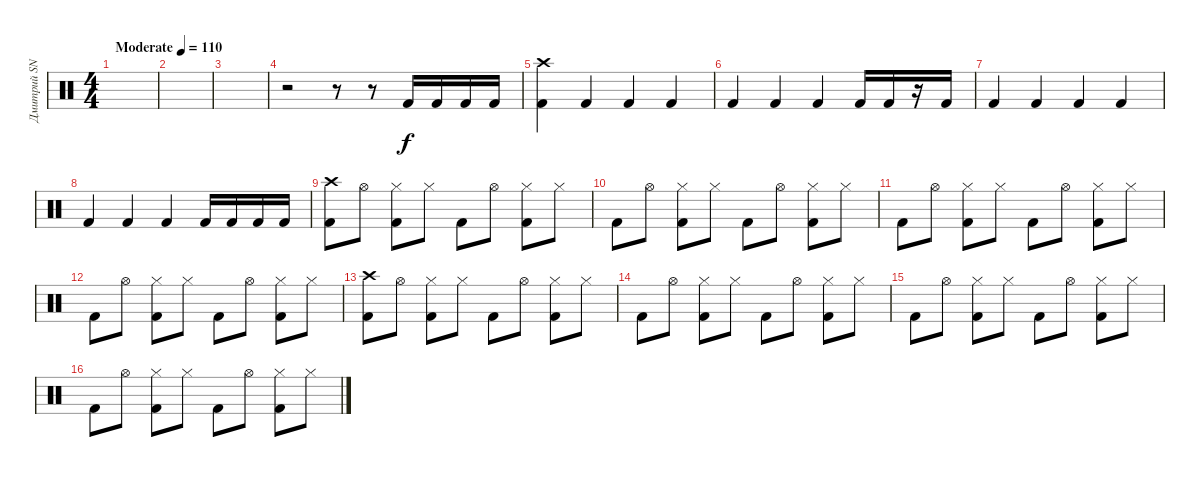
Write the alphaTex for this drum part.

\track ("Дмитрий SNAKE Хакимов" "Дмитрий SN") {instrument percussion}
\staff {score}
\articulation defaults
\ts (4 4)
\tempo (110 "Moderate")
\clef neutral
\ks c
|
|
|
r.2 r.8 r.8 "Kick (hit) 2".16 "Kick (hit) 2".16 "Kick (hit) 2".16 "Kick (hit) 2".16 |
("Crash high (hit)" "Kick (hit) 2").4 "Kick (hit) 2".4 "Kick (hit) 2".4 "Kick (hit) 2".4 |
"Kick (hit) 2".4 "Kick (hit) 2".4 "Kick (hit) 2".4 "Kick (hit) 2".16 "Kick (hit) 2".16 r.16 "Kick (hit) 2".16 |
"Kick (hit) 2".4 "Kick (hit) 2".4 "Kick (hit) 2".4 "Kick (hit) 2".4 |
"Kick (hit) 2".4 "Kick (hit) 2".4 "Kick (hit) 2".4 "Kick (hit) 2".16 "Kick (hit) 2".16 "Kick (hit) 2".16 "Kick (hit) 2".16 |
("Crash high (hit)" "Kick (hit) 2").8 "Hi-Hat (open)".8 ("Hi-Hat (closed)" "Kick (hit) 2").8 "Hi-Hat (closed)".8 "Kick (hit) 2".8 "Hi-Hat (open)".8 ("Hi-Hat (closed)" "Kick (hit) 2").8 "Hi-Hat (closed)".8 |
"Kick (hit) 2".8 "Hi-Hat (open)".8 ("Hi-Hat (closed)" "Kick (hit) 2").8 "Hi-Hat (closed)".8 "Kick (hit) 2".8 "Hi-Hat (open)".8 ("Hi-Hat (closed)" "Kick (hit) 2").8 "Hi-Hat (closed)".8 |
"Kick (hit) 2".8 "Hi-Hat (open)".8 ("Hi-Hat (closed)" "Kick (hit) 2").8 "Hi-Hat (closed)".8 "Kick (hit) 2".8 "Hi-Hat (open)".8 ("Hi-Hat (closed)" "Kick (hit) 2").8 "Hi-Hat (closed)".8 |
"Kick (hit) 2".8 "Hi-Hat (open)".8 ("Hi-Hat (closed)" "Kick (hit) 2").8 "Hi-Hat (closed)".8 "Kick (hit) 2".8 "Hi-Hat (open)".8 ("Hi-Hat (closed)" "Kick (hit) 2").8 "Hi-Hat (closed)".8 |
("Crash high (hit)" "Kick (hit) 2").8 "Hi-Hat (open)".8 ("Hi-Hat (closed)" "Kick (hit) 2").8 "Hi-Hat (closed)".8 "Kick (hit) 2".8 "Hi-Hat (open)".8 ("Hi-Hat (closed)" "Kick (hit) 2").8 "Hi-Hat (closed)".8 |
"Kick (hit) 2".8 "Hi-Hat (open)".8 ("Hi-Hat (closed)" "Kick (hit) 2").8 "Hi-Hat (closed)".8 "Kick (hit) 2".8 "Hi-Hat (open)".8 ("Hi-Hat (closed)" "Kick (hit) 2").8 "Hi-Hat (closed)".8 |
"Kick (hit) 2".8 "Hi-Hat (open)".8 ("Hi-Hat (closed)" "Kick (hit) 2").8 "Hi-Hat (closed)".8 "Kick (hit) 2".8 "Hi-Hat (open)".8 ("Hi-Hat (closed)" "Kick (hit) 2").8 "Hi-Hat (closed)".8 |
"Kick (hit) 2".8 "Hi-Hat (open)".8 ("Hi-Hat (closed)" "Kick (hit) 2").8 "Hi-Hat (closed)".8 "Kick (hit) 2".8 "Hi-Hat (open)".8 ("Hi-Hat (closed)" "Kick (hit) 2").8 "Hi-Hat (closed)".8
